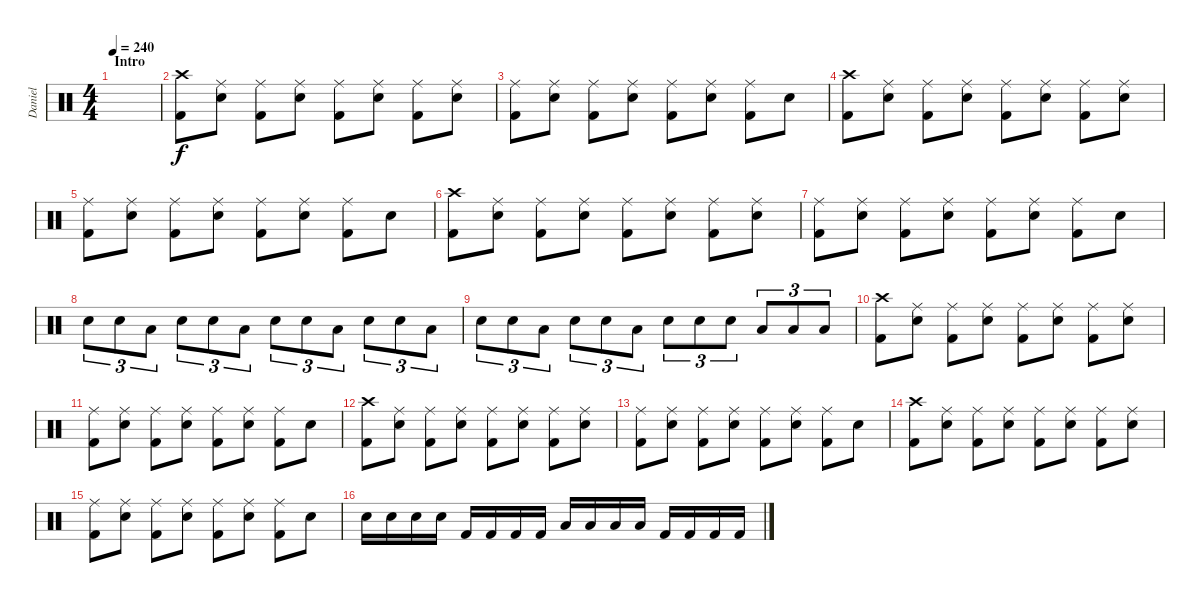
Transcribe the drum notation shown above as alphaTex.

\track ("Daniel" "Daniel") {instrument percussion}
\staff {score}
\articulation defaults
\ts (4 4)
\section ("" "Intro")
\tempo 240
\clef neutral
\ks c
|
("Crash high (hit)" "Kick (hit) 2").8 ("Ride (middle)" "Electric Snare (hit)").8 ("Ride (middle)" "Kick (hit) 2").8 ("Ride (middle)" "Electric Snare (hit)").8 ("Ride (middle)" "Kick (hit) 2").8 ("Ride (middle)" "Electric Snare (hit)").8 ("Ride (middle)" "Kick (hit) 2").8 ("Ride (middle)" "Electric Snare (hit)").8 |
("Ride (middle)" "Kick (hit) 2").8 ("Ride (middle)" "Electric Snare (hit)").8 ("Ride (middle)" "Kick (hit) 2").8 ("Ride (middle)" "Electric Snare (hit)").8 ("Ride (middle)" "Kick (hit) 2").8 ("Ride (middle)" "Electric Snare (hit)").8 ("Ride (middle)" "Kick (hit) 2").8 "Electric Snare (hit)".8 |
("Crash high (hit)" "Kick (hit) 2").8 ("Ride (middle)" "Electric Snare (hit)").8 ("Ride (middle)" "Kick (hit) 2").8 ("Ride (middle)" "Electric Snare (hit)").8 ("Ride (middle)" "Kick (hit) 2").8 ("Ride (middle)" "Electric Snare (hit)").8 ("Ride (middle)" "Kick (hit) 2").8 ("Ride (middle)" "Electric Snare (hit)").8 |
("Ride (middle)" "Kick (hit) 2").8 ("Ride (middle)" "Electric Snare (hit)").8 ("Ride (middle)" "Kick (hit) 2").8 ("Ride (middle)" "Electric Snare (hit)").8 ("Ride (middle)" "Kick (hit) 2").8 ("Ride (middle)" "Electric Snare (hit)").8 ("Ride (middle)" "Kick (hit) 2").8 "Electric Snare (hit)".8 |
("Crash high (hit)" "Kick (hit) 2").8 ("Ride (middle)" "Electric Snare (hit)").8 ("Ride (middle)" "Kick (hit) 2").8 ("Ride (middle)" "Electric Snare (hit)").8 ("Ride (middle)" "Kick (hit) 2").8 ("Ride (middle)" "Electric Snare (hit)").8 ("Ride (middle)" "Kick (hit) 2").8 ("Ride (middle)" "Electric Snare (hit)").8 |
("Ride (middle)" "Kick (hit) 2").8 ("Ride (middle)" "Electric Snare (hit)").8 ("Ride (middle)" "Kick (hit) 2").8 ("Ride (middle)" "Electric Snare (hit)").8 ("Ride (middle)" "Kick (hit) 2").8 ("Ride (middle)" "Electric Snare (hit)").8 ("Ride (middle)" "Kick (hit) 2").8 "Electric Snare (hit)".8 |
"Electric Snare (hit)".8{tu (3 2)} "Electric Snare (hit)".8{tu (3 2)} "Low Tom (hit)".8{tu (3 2)} "Electric Snare (hit)".8{tu (3 2)} "Electric Snare (hit)".8{tu (3 2)} "Low Tom (hit)".8{tu (3 2)} "Electric Snare (hit)".8{tu (3 2)} "Electric Snare (hit)".8{tu (3 2)} "Low Tom (hit)".8{tu (3 2)} "Electric Snare (hit)".8{tu (3 2)} "Electric Snare (hit)".8{tu (3 2)} "Low Tom (hit)".8{tu (3 2)} |
"Electric Snare (hit)".8{tu (3 2)} "Electric Snare (hit)".8{tu (3 2)} "Low Tom (hit)".8{tu (3 2)} "Electric Snare (hit)".8{tu (3 2)} "Electric Snare (hit)".8{tu (3 2)} "Low Tom (hit)".8{tu (3 2)} "Electric Snare (hit)".8{tu (3 2)} "Electric Snare (hit)".8{tu (3 2)} "Electric Snare (hit)".8{tu (3 2)} "Low Tom (hit)".8{tu (3 2)} "Low Tom (hit)".8{tu (3 2)} "Low Tom (hit)".8{tu (3 2)} |
("Crash high (hit)" "Kick (hit) 2").8 ("Ride (middle)" "Electric Snare (hit)").8 ("Ride (middle)" "Kick (hit) 2").8 ("Ride (middle)" "Electric Snare (hit)").8 ("Ride (middle)" "Kick (hit) 2").8 ("Ride (middle)" "Electric Snare (hit)").8 ("Ride (middle)" "Kick (hit) 2").8 ("Ride (middle)" "Electric Snare (hit)").8 |
("Ride (middle)" "Kick (hit) 2").8 ("Ride (middle)" "Electric Snare (hit)").8 ("Ride (middle)" "Kick (hit) 2").8 ("Ride (middle)" "Electric Snare (hit)").8 ("Ride (middle)" "Kick (hit) 2").8 ("Ride (middle)" "Electric Snare (hit)").8 ("Ride (middle)" "Kick (hit) 2").8 "Electric Snare (hit)".8 |
("Crash high (hit)" "Kick (hit) 2").8 ("Ride (middle)" "Electric Snare (hit)").8 ("Ride (middle)" "Kick (hit) 2").8 ("Ride (middle)" "Electric Snare (hit)").8 ("Ride (middle)" "Kick (hit) 2").8 ("Ride (middle)" "Electric Snare (hit)").8 ("Ride (middle)" "Kick (hit) 2").8 ("Ride (middle)" "Electric Snare (hit)").8 |
("Ride (middle)" "Kick (hit) 2").8 ("Ride (middle)" "Electric Snare (hit)").8 ("Ride (middle)" "Kick (hit) 2").8 ("Ride (middle)" "Electric Snare (hit)").8 ("Ride (middle)" "Kick (hit) 2").8 ("Ride (middle)" "Electric Snare (hit)").8 ("Ride (middle)" "Kick (hit) 2").8 "Electric Snare (hit)".8 |
("Crash high (hit)" "Kick (hit) 2").8 ("Ride (middle)" "Electric Snare (hit)").8 ("Ride (middle)" "Kick (hit) 2").8 ("Ride (middle)" "Electric Snare (hit)").8 ("Ride (middle)" "Kick (hit) 2").8 ("Ride (middle)" "Electric Snare (hit)").8 ("Ride (middle)" "Kick (hit) 2").8 ("Ride (middle)" "Electric Snare (hit)").8 |
("Ride (middle)" "Kick (hit) 2").8 ("Ride (middle)" "Electric Snare (hit)").8 ("Ride (middle)" "Kick (hit) 2").8 ("Ride (middle)" "Electric Snare (hit)").8 ("Ride (middle)" "Kick (hit) 2").8 ("Ride (middle)" "Electric Snare (hit)").8 ("Ride (middle)" "Kick (hit) 2").8 "Electric Snare (hit)".8 |
"Electric Snare (hit)".16 "Electric Snare (hit)".16 "Electric Snare (hit)".16 "Electric Snare (hit)".16 "Kick (hit) 2".16 "Kick (hit) 2".16 "Kick (hit) 2".16 "Kick (hit) 2".16 "Low Tom (hit)".16 "Low Tom (hit)".16 "Low Tom (hit)".16 "Low Tom (hit)".16 "Kick (hit) 2".16 "Kick (hit) 2".16 "Kick (hit) 2".16 "Kick (hit) 2".16
